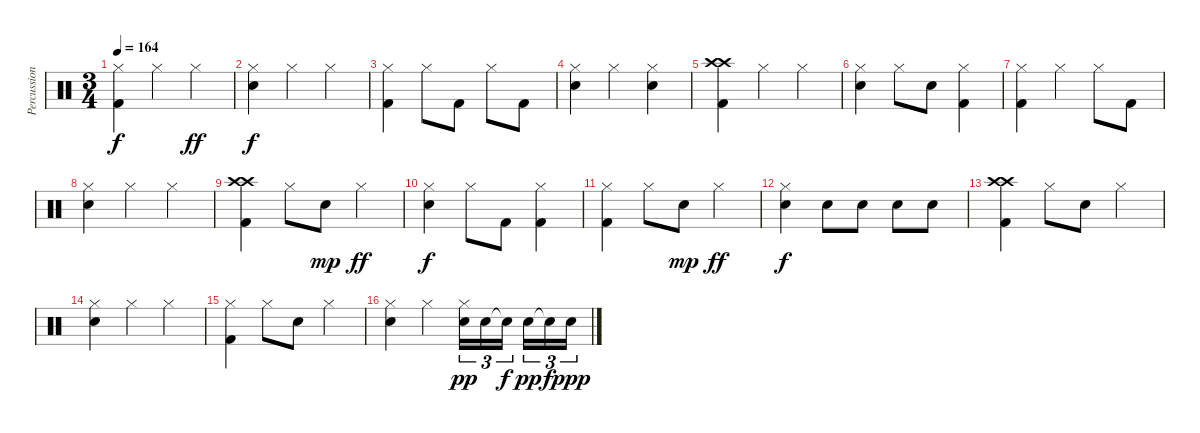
\track ("Percussion" "Percussion") {instrument percussion}
\staff {score}
\articulation defaults
\ts (3 4)
\tempo 164
\clef neutral
\ks c
("Hi-Hat (closed)" "Kick (hit) 2").4{dy f} "Hi-Hat (closed)".4 "Hi-Hat (closed)".4{dy ff} |
("Hi-Hat (closed)" "Snare (hit) 2").4{dy f} "Hi-Hat (closed)".4 "Hi-Hat (closed)".4 |
("Hi-Hat (closed)" "Kick (hit) 2").4 "Hi-Hat (closed)".8 "Kick (hit) 2".8 "Hi-Hat (closed)".8 "Kick (hit) 2".8 |
("Hi-Hat (closed)" "Snare (hit) 2").4 "Hi-Hat (closed)".4 ("Hi-Hat (closed)" "Snare (hit) 2").4 |
("Crash high (hit)" "Crash high (hit)" "Kick (hit) 2").4 "Hi-Hat (closed)".4 "Hi-Hat (closed)".4 |
("Hi-Hat (closed)" "Snare (hit) 2").4 "Hi-Hat (closed)".8 "Snare (hit) 2".8 ("Hi-Hat (closed)" "Kick (hit) 2").4 |
("Hi-Hat (closed)" "Kick (hit) 2").4 "Hi-Hat (closed)".4 "Hi-Hat (closed)".8 "Kick (hit) 2".8 |
("Hi-Hat (closed)" "Snare (hit) 2").4 "Hi-Hat (closed)".4 "Hi-Hat (closed)".4 |
("Crash high (hit)" "Crash high (hit)" "Kick (hit) 2").4 "Hi-Hat (closed)".8 "Snare (hit) 2".8{dy mp} "Hi-Hat (closed)".4{dy ff} |
("Hi-Hat (closed)" "Snare (hit) 2").4{dy f} "Hi-Hat (closed)".8 "Kick (hit) 2".8 ("Hi-Hat (closed)" "Kick (hit) 2").4 |
("Hi-Hat (closed)" "Kick (hit) 2").4 "Hi-Hat (closed)".8 "Snare (hit) 2".8{dy mp} "Hi-Hat (closed)".4{dy ff} |
("Hi-Hat (closed)" "Snare (hit) 2").4{dy f} "Snare (hit) 2".8 "Snare (hit) 2".8 "Snare (hit) 2".8 "Snare (hit) 2".8 |
("Crash high (hit)" "Crash high (hit)" "Kick (hit) 2").4 "Hi-Hat (closed)".8 "Snare (hit) 2".8 "Hi-Hat (closed)".4 |
("Hi-Hat (closed)" "Snare (hit) 2").4 "Hi-Hat (closed)".4 "Hi-Hat (closed)".4 |
("Hi-Hat (closed)" "Kick (hit) 2").4 "Hi-Hat (closed)".8 "Snare (hit) 2".8 "Hi-Hat (closed)".4 |
("Hi-Hat (closed)" "Snare (hit) 2").4 "Hi-Hat (closed)".4 ("Hi-Hat (closed)" "Snare (hit) 2").16{tu (3 2) dy pp} "Snare (hit) 2".16{tu (3 2)} "Snare (hit) 2"{t}.16{tu (3 2) dy f} "Snare (hit) 2".16{tu (3 2) dy pp} "Snare (hit) 2"{t}.16{tu (3 2) dy f} "Snare (hit) 2".16{tu (3 2) dy ppp}
